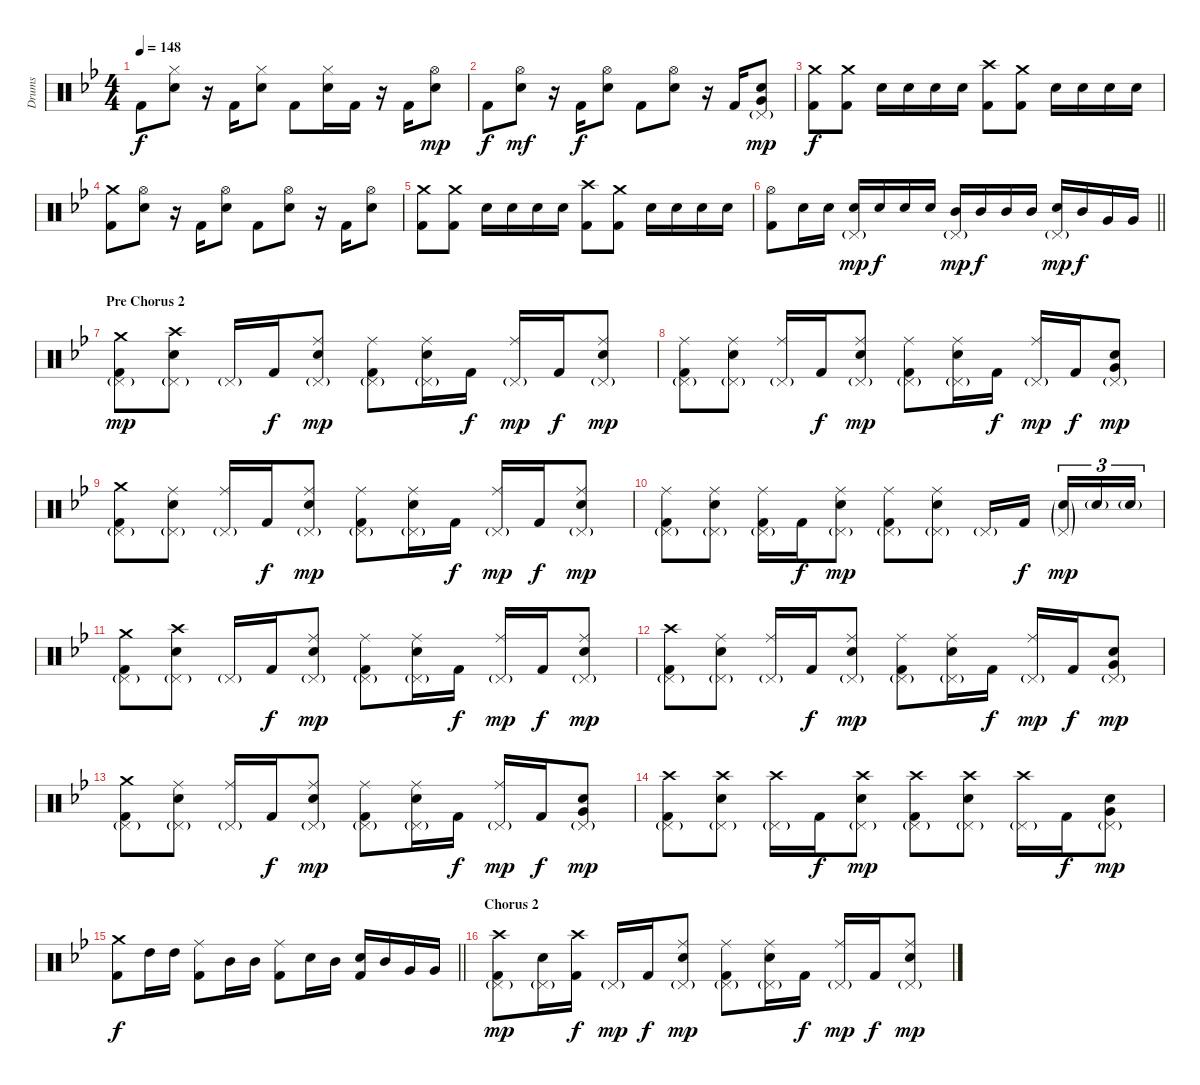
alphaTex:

\track ("Drums" "Drums") {instrument percussion}
\staff {score}
\articulation defaults
\ts (4 4)
\tempo 148
\clef neutral
\ks gminor "Kick (hit) 2".8{dy f}
("Hi-Hat (closed)" "Electric Snare (hit)").8 r.16 "Kick (hit) 2".16 ("Hi-Hat (closed)" "Electric Snare (hit)").8 "Kick (hit) 2".8 ("Hi-Hat (closed)" "Electric Snare (hit)").16 "Kick (hit) 2".16 r.16 "Kick (hit) 2".16 ("Hi-Hat (open)" "Electric Snare (hit)").8{dy mp} |
"Kick (hit) 2".8{dy f} ("Hi-Hat (open)" "Electric Snare (hit)").8{dy mf} r.16 "Kick (hit) 2".16{dy f} ("Hi-Hat (open)" "Electric Snare (hit)").8 "Kick (hit) 2".8 ("Hi-Hat (open)" "Electric Snare (hit)").8 r.16 "Kick (hit) 2".16 ("Pedal Hi-Hat (hit)"{g} "Electric Snare (hit)" "Very Low Tom (hit)").8{dy mp} |
("Crash medium (hit)" "Kick (hit) 2").8{dy f} ("Crash medium (hit)" "Kick (hit) 2").8 "Electric Snare (hit)".16 "Electric Snare (hit)".16 "Electric Snare (hit)".16 "Electric Snare (hit)".16 ("Crash high (hit)" "Kick (hit) 2").8 ("Crash medium (hit)" "Kick (hit) 2").8 "Electric Snare (hit)".16 "Electric Snare (hit)".16 "Electric Snare (hit)".16 "Electric Snare (hit)".16 |
("Crash medium (hit)" "Kick (hit) 2").8 ("Hi-Hat (open)" "Electric Snare (hit)").8 r.16 "Kick (hit) 2".16 ("Hi-Hat (open)" "Electric Snare (hit)").8 "Kick (hit) 2".8 ("Hi-Hat (open)" "Electric Snare (hit)").8 r.16 "Kick (hit) 2".16 ("Hi-Hat (open)" "Electric Snare (hit)").8 |
("Crash medium (hit)" "Kick (hit) 2").8 ("Crash medium (hit)" "Kick (hit) 2").8 "Electric Snare (hit)".16 "Electric Snare (hit)".16 "Electric Snare (hit)".16 "Electric Snare (hit)".16 ("Crash high (hit)" "Kick (hit) 2").8 ("Crash medium (hit)" "Kick (hit) 2").8 "Electric Snare (hit)".16 "Electric Snare (hit)".16 "Electric Snare (hit)".16 "Electric Snare (hit)".16 |
\barLineRight lightlight
("Hi-Hat (open)" "Kick (hit) 2").8 "Electric Snare (hit)".16 "Electric Snare (hit)".16 ("Pedal Hi-Hat (hit)"{g} "Electric Snare (hit)").16{dy mp} "Electric Snare (hit)".16{dy f} "Electric Snare (hit)".16 "Electric Snare (hit)".16 ("Pedal Hi-Hat (hit)"{g} "Mid Tom (hit)").16{dy mp} "Mid Tom (hit)".16{dy f} "Mid Tom (hit)".16 "Mid Tom (hit)".16 ("Pedal Hi-Hat (hit)"{g} "Electric Snare (hit)").16{dy mp} "Mid Tom (hit)".16{dy f} "Very Low Tom (hit)".16 "Very Low Tom (hit)".16 |
\section ("" "Pre Chorus 2")
("Crash medium (hit)" "Pedal Hi-Hat (hit)"{g} "Kick (hit) 2").8{dy mp} ("Crash high (hit)" "Pedal Hi-Hat (hit)"{g} "Electric Snare (hit)").8 "Pedal Hi-Hat (hit)"{g}.16 "Kick (hit) 2".16{dy f} ("Ride (middle)" "Pedal Hi-Hat (hit)"{g} "Electric Snare (hit)").8{dy mp} ("Ride (middle)" "Pedal Hi-Hat (hit)"{g} "Kick (hit) 2").8 ("Ride (middle)" "Pedal Hi-Hat (hit)"{g} "Electric Snare (hit)").16 "Kick (hit) 2".16{dy f} ("Ride (middle)" "Pedal Hi-Hat (hit)"{g}).16{dy mp} "Kick (hit) 2".16{dy f} ("Ride (middle)" "Pedal Hi-Hat (hit)"{g} "Electric Snare (hit)").8{dy mp} |
("Ride (middle)" "Pedal Hi-Hat (hit)"{g} "Kick (hit) 2").8 ("Ride (middle)" "Pedal Hi-Hat (hit)"{g} "Electric Snare (hit)").8 ("Ride (middle)" "Pedal Hi-Hat (hit)"{g}).16 "Kick (hit) 2".16{dy f} ("Ride (middle)" "Pedal Hi-Hat (hit)"{g} "Electric Snare (hit)").8{dy mp} ("Ride (middle)" "Pedal Hi-Hat (hit)"{g} "Kick (hit) 2").8 ("Ride (middle)" "Pedal Hi-Hat (hit)"{g} "Electric Snare (hit)").16 "Kick (hit) 2".16{dy f} ("Ride (middle)" "Pedal Hi-Hat (hit)"{g}).16{dy mp} "Kick (hit) 2".16{dy f} ("Pedal Hi-Hat (hit)"{g} "Electric Snare (hit)" "Very Low Tom (hit)").8{dy mp} |
("Crash medium (hit)" "Pedal Hi-Hat (hit)"{g} "Kick (hit) 2").8 ("Ride (middle)" "Pedal Hi-Hat (hit)"{g} "Electric Snare (hit)").8 ("Ride (middle)" "Pedal Hi-Hat (hit)"{g}).16 "Kick (hit) 2".16{dy f} ("Ride (middle)" "Pedal Hi-Hat (hit)"{g} "Electric Snare (hit)").8{dy mp} ("Ride (middle)" "Pedal Hi-Hat (hit)"{g} "Kick (hit) 2").8 ("Ride (middle)" "Pedal Hi-Hat (hit)"{g} "Electric Snare (hit)").16 "Kick (hit) 2".16{dy f} ("Ride (middle)" "Pedal Hi-Hat (hit)"{g}).16{dy mp} "Kick (hit) 2".16{dy f} ("Ride (middle)" "Pedal Hi-Hat (hit)"{g} "Electric Snare (hit)").8{dy mp} |
("Ride (middle)" "Pedal Hi-Hat (hit)"{g} "Kick (hit) 2").8 ("Ride (middle)" "Pedal Hi-Hat (hit)"{g} "Electric Snare (hit)").8 ("Ride (middle)" "Pedal Hi-Hat (hit)"{g} "Kick (hit) 2").16 "Kick (hit) 2".16{dy f} ("Ride (middle)" "Pedal Hi-Hat (hit)"{g} "Electric Snare (hit)").8{dy mp} ("Ride (middle)" "Pedal Hi-Hat (hit)"{g} "Kick (hit) 2").8 ("Ride (middle)" "Pedal Hi-Hat (hit)"{g} "Electric Snare (hit)").8 "Pedal Hi-Hat (hit)"{g}.16 "Kick (hit) 2".16{dy f} ("Pedal Hi-Hat (hit)"{g} "Electric Snare (hit)"{g}).16{tu (3 2) dy mp} "Electric Snare (hit)"{g}.16{tu (3 2)} "Electric Snare (hit)"{g}.16{tu (3 2)} |
("Crash medium (hit)" "Pedal Hi-Hat (hit)"{g} "Kick (hit) 2").8 ("Crash high (hit)" "Pedal Hi-Hat (hit)"{g} "Electric Snare (hit)").8 "Pedal Hi-Hat (hit)"{g}.16 "Kick (hit) 2".16{dy f} ("Ride (middle)" "Pedal Hi-Hat (hit)"{g} "Electric Snare (hit)").8{dy mp} ("Ride (middle)" "Pedal Hi-Hat (hit)"{g} "Kick (hit) 2").8 ("Ride (middle)" "Pedal Hi-Hat (hit)"{g} "Electric Snare (hit)").16 "Kick (hit) 2".16{dy f} ("Ride (middle)" "Pedal Hi-Hat (hit)"{g}).16{dy mp} "Kick (hit) 2".16{dy f} ("Ride (middle)" "Pedal Hi-Hat (hit)"{g} "Electric Snare (hit)").8{dy mp} |
("Crash high (hit)" "Pedal Hi-Hat (hit)"{g} "Kick (hit) 2").8 ("Ride (middle)" "Pedal Hi-Hat (hit)"{g} "Electric Snare (hit)").8 ("Ride (middle)" "Pedal Hi-Hat (hit)"{g}).16 "Kick (hit) 2".16{dy f} ("Ride (middle)" "Pedal Hi-Hat (hit)"{g} "Electric Snare (hit)").8{dy mp} ("Ride (middle)" "Pedal Hi-Hat (hit)"{g} "Kick (hit) 2").8 ("Ride (middle)" "Pedal Hi-Hat (hit)"{g} "Electric Snare (hit)").16 "Kick (hit) 2".16{dy f} ("Ride (middle)" "Pedal Hi-Hat (hit)"{g}).16{dy mp} "Kick (hit) 2".16{dy f} ("Pedal Hi-Hat (hit)"{g} "Electric Snare (hit)" "Very Low Tom (hit)").8{dy mp} |
("Crash medium (hit)" "Pedal Hi-Hat (hit)"{g} "Kick (hit) 2").8 ("Ride (middle)" "Pedal Hi-Hat (hit)"{g} "Electric Snare (hit)").8 ("Ride (middle)" "Pedal Hi-Hat (hit)"{g}).16 "Kick (hit) 2".16{dy f} ("Ride (middle)" "Pedal Hi-Hat (hit)"{g} "Electric Snare (hit)").8{dy mp} ("Ride (middle)" "Pedal Hi-Hat (hit)"{g} "Kick (hit) 2").8 ("Ride (middle)" "Pedal Hi-Hat (hit)"{g} "Electric Snare (hit)").16 "Kick (hit) 2".16{dy f} ("Ride (middle)" "Pedal Hi-Hat (hit)"{g}).16{dy mp} "Kick (hit) 2".16{dy f} ("Pedal Hi-Hat (hit)"{g} "Electric Snare (hit)" "Very Low Tom (hit)").8{dy mp} |
("Crash high (hit)" "Pedal Hi-Hat (hit)"{g} "Kick (hit) 2").8 ("Crash high (hit)" "Pedal Hi-Hat (hit)"{g} "Electric Snare (hit)").8 ("Crash high (hit)" "Pedal Hi-Hat (hit)"{g}).16 "Kick (hit) 2".16{dy f} ("Crash high (hit)" "Pedal Hi-Hat (hit)"{g} "Electric Snare (hit)").8{dy mp} ("Crash high (hit)" "Pedal Hi-Hat (hit)"{g} "Kick (hit) 2").8 ("Crash high (hit)" "Pedal Hi-Hat (hit)"{g} "Electric Snare (hit)").8 ("Crash high (hit)" "Pedal Hi-Hat (hit)"{g}).16 "Kick (hit) 2".16{dy f} ("Pedal Hi-Hat (hit)"{g} "Electric Snare (hit)" "Very Low Tom (hit)").8{dy mp} |
\barLineRight lightlight
("Crash medium (hit)" "Kick (hit) 2").8{dy f} "High Tom (hit)".16 "High Tom (hit)".16 ("Ride (middle)" "Kick (hit) 2").8 "Mid Tom (hit)".16 "Mid Tom (hit)".16 ("Ride (middle)" "Kick (hit) 2").8 "Electric Snare (hit)".16 "Mid Tom (hit)".16 ("Electric Snare (hit)" "Kick (hit) 2").16 "Mid Tom (hit)".16 "Very Low Tom (hit)".16 "Very Low Tom (hit)".16 |
\section ("" "Chorus 2")
("Crash high (hit)" "Pedal Hi-Hat (hit)"{g} "Kick (hit) 2").8{dy mp} ("Pedal Hi-Hat (hit)"{g} "Electric Snare (hit)").16 ("Crash high (hit)" "Kick (hit) 2").16{dy f} "Pedal Hi-Hat (hit)"{g}.16{dy mp} "Kick (hit) 2".16{dy f} ("Ride (middle)" "Pedal Hi-Hat (hit)"{g} "Electric Snare (hit)").8{dy mp} ("Ride (middle)" "Pedal Hi-Hat (hit)"{g} "Kick (hit) 2").8 ("Ride (middle)" "Pedal Hi-Hat (hit)"{g} "Electric Snare (hit)").16 "Kick (hit) 2".16{dy f} ("Ride (middle)" "Pedal Hi-Hat (hit)"{g}).16{dy mp} "Kick (hit) 2".16{dy f} ("Ride (middle)" "Pedal Hi-Hat (hit)"{g} "Electric Snare (hit)").8{dy mp}
